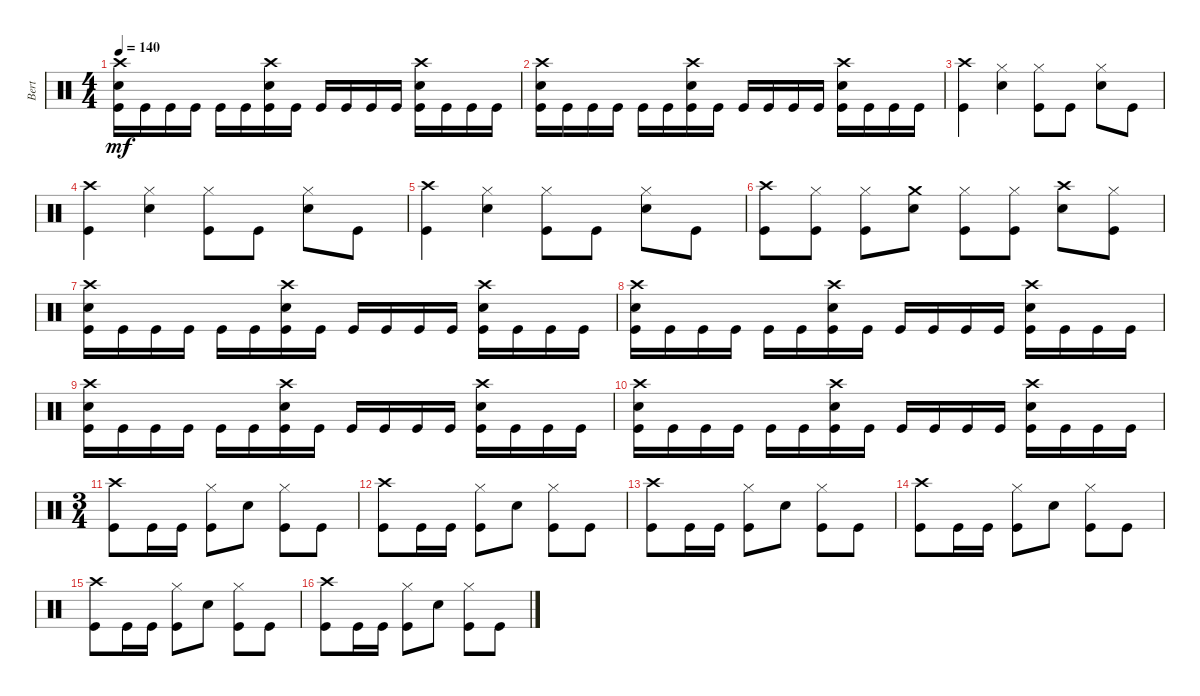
\track ("Bert" "Bert") {instrument percussion}
\staff {score}
\articulation defaults
\ts (4 4)
\tempo 140
\clef neutral
\ks c
("Kick (hit)" "Electric Snare (hit)" "Crash high (hit)").16{dy mf} "Kick (hit)".16 "Kick (hit)".16 "Kick (hit)".16 "Kick (hit)".16 "Kick (hit)".16 ("Crash high (hit)" "Electric Snare (hit)" "Kick (hit)").16 "Kick (hit)".16 "Kick (hit)".16 "Kick (hit)".16 "Kick (hit)".16 "Kick (hit)".16 ("Crash high (hit)" "Electric Snare (hit)" "Kick (hit)").16 "Kick (hit)".16 "Kick (hit)".16 "Kick (hit)".16 |
("Crash high (hit)" "Electric Snare (hit)" "Kick (hit)").16 "Kick (hit)".16 "Kick (hit)".16 "Kick (hit)".16 "Kick (hit)".16 "Kick (hit)".16 ("Crash high (hit)" "Electric Snare (hit)" "Kick (hit)").16 "Kick (hit)".16 "Kick (hit)".16 "Kick (hit)".16 "Kick (hit)".16 "Kick (hit)".16 ("Kick (hit)" "Electric Snare (hit)" "Crash high (hit)").16 "Kick (hit)".16 "Kick (hit)".16 "Kick (hit)".16 |
("Kick (hit)" "Crash high (hit)").4 ("Hi-Hat (closed)" "Electric Snare (hit)").4 ("Hi-Hat (closed)" "Kick (hit)").8 "Kick (hit)".8 ("Electric Snare (hit)" "Hi-Hat (closed)").8 "Kick (hit)".8 |
("Kick (hit)" "Crash high (hit)").4 ("Electric Snare (hit)" "Hi-Hat (closed)").4 ("Hi-Hat (closed)" "Kick (hit)").8 "Kick (hit)".8 ("Hi-Hat (closed)" "Electric Snare (hit)").8 "Kick (hit)".8 |
("Kick (hit)" "Crash high (hit)").4 ("Hi-Hat (closed)" "Electric Snare (hit)").4 ("Kick (hit)" "Hi-Hat (closed)").8 "Kick (hit)".8 ("Electric Snare (hit)" "Hi-Hat (closed)").8 "Kick (hit)".8 |
("Kick (hit)" "Crash high (hit)").8 ("Hi-Hat (closed)" "Kick (hit)").8 ("Hi-Hat (closed)" "Kick (hit)").8 ("Crash medium (hit)" "Electric Snare (hit)").8 ("Kick (hit)" "Hi-Hat (closed)").8 ("Hi-Hat (closed)" "Kick (hit)").8 ("Crash high (hit)" "Electric Snare (hit)").8 ("Hi-Hat (closed)" "Kick (hit)").8 |
("Electric Snare (hit)" "Crash high (hit)" "Kick (hit)").16 "Kick (hit)".16 "Kick (hit)".16 "Kick (hit)".16 "Kick (hit)".16 "Kick (hit)".16 ("Kick (hit)" "Crash high (hit)" "Electric Snare (hit)").16 "Kick (hit)".16 "Kick (hit)".16 "Kick (hit)".16 "Kick (hit)".16 "Kick (hit)".16 ("Crash high (hit)" "Electric Snare (hit)" "Kick (hit)").16 "Kick (hit)".16 "Kick (hit)".16 "Kick (hit)".16 |
("Electric Snare (hit)" "Crash high (hit)" "Kick (hit)").16 "Kick (hit)".16 "Kick (hit)".16 "Kick (hit)".16 "Kick (hit)".16 "Kick (hit)".16 ("Electric Snare (hit)" "Crash high (hit)" "Kick (hit)").16 "Kick (hit)".16 "Kick (hit)".16 "Kick (hit)".16 "Kick (hit)".16 "Kick (hit)".16 ("Kick (hit)" "Electric Snare (hit)" "Crash high (hit)").16 "Kick (hit)".16 "Kick (hit)".16 "Kick (hit)".16 |
("Crash high (hit)" "Electric Snare (hit)" "Kick (hit)").16 "Kick (hit)".16 "Kick (hit)".16 "Kick (hit)".16 "Kick (hit)".16 "Kick (hit)".16 ("Electric Snare (hit)" "Crash high (hit)" "Kick (hit)").16 "Kick (hit)".16 "Kick (hit)".16 "Kick (hit)".16 "Kick (hit)".16 "Kick (hit)".16 ("Kick (hit)" "Electric Snare (hit)" "Crash high (hit)").16 "Kick (hit)".16 "Kick (hit)".16 "Kick (hit)".16 |
("Kick (hit)" "Electric Snare (hit)" "Crash high (hit)").16 "Kick (hit)".16 "Kick (hit)".16 "Kick (hit)".16 "Kick (hit)".16 "Kick (hit)".16 ("Electric Snare (hit)" "Crash high (hit)" "Kick (hit)").16 "Kick (hit)".16 "Kick (hit)".16 "Kick (hit)".16 "Kick (hit)".16 "Kick (hit)".16 ("Kick (hit)" "Electric Snare (hit)" "Crash high (hit)").16 "Kick (hit)".16 "Kick (hit)".16 "Kick (hit)".16 |
\ts (3 4)
("Crash high (hit)" "Kick (hit)").8 "Kick (hit)".16 "Kick (hit)".16 ("Hi-Hat (closed)" "Kick (hit)").8 "Electric Snare (hit)".8 ("Hi-Hat (closed)" "Kick (hit)").8 "Kick (hit)".8 |
("Crash high (hit)" "Kick (hit)").8 "Kick (hit)".16 "Kick (hit)".16 ("Hi-Hat (closed)" "Kick (hit)").8 "Electric Snare (hit)".8 ("Hi-Hat (closed)" "Kick (hit)").8 "Kick (hit)".8 |
("Crash high (hit)" "Kick (hit)").8 "Kick (hit)".16 "Kick (hit)".16 ("Kick (hit)" "Hi-Hat (closed)").8 "Electric Snare (hit)".8 ("Kick (hit)" "Hi-Hat (closed)").8 "Kick (hit)".8 |
("Kick (hit)" "Crash high (hit)").8 "Kick (hit)".16 "Kick (hit)".16 ("Kick (hit)" "Hi-Hat (closed)").8 "Electric Snare (hit)".8 ("Hi-Hat (closed)" "Kick (hit)").8 "Kick (hit)".8 |
("Kick (hit)" "Crash high (hit)").8 "Kick (hit)".16 "Kick (hit)".16 ("Kick (hit)" "Hi-Hat (closed)").8 "Electric Snare (hit)".8 ("Kick (hit)" "Hi-Hat (closed)").8 "Kick (hit)".8 |
("Kick (hit)" "Crash high (hit)").8 "Kick (hit)".16 "Kick (hit)".16 ("Kick (hit)" "Hi-Hat (closed)").8 "Electric Snare (hit)".8 ("Kick (hit)" "Hi-Hat (closed)").8 "Kick (hit)".8
